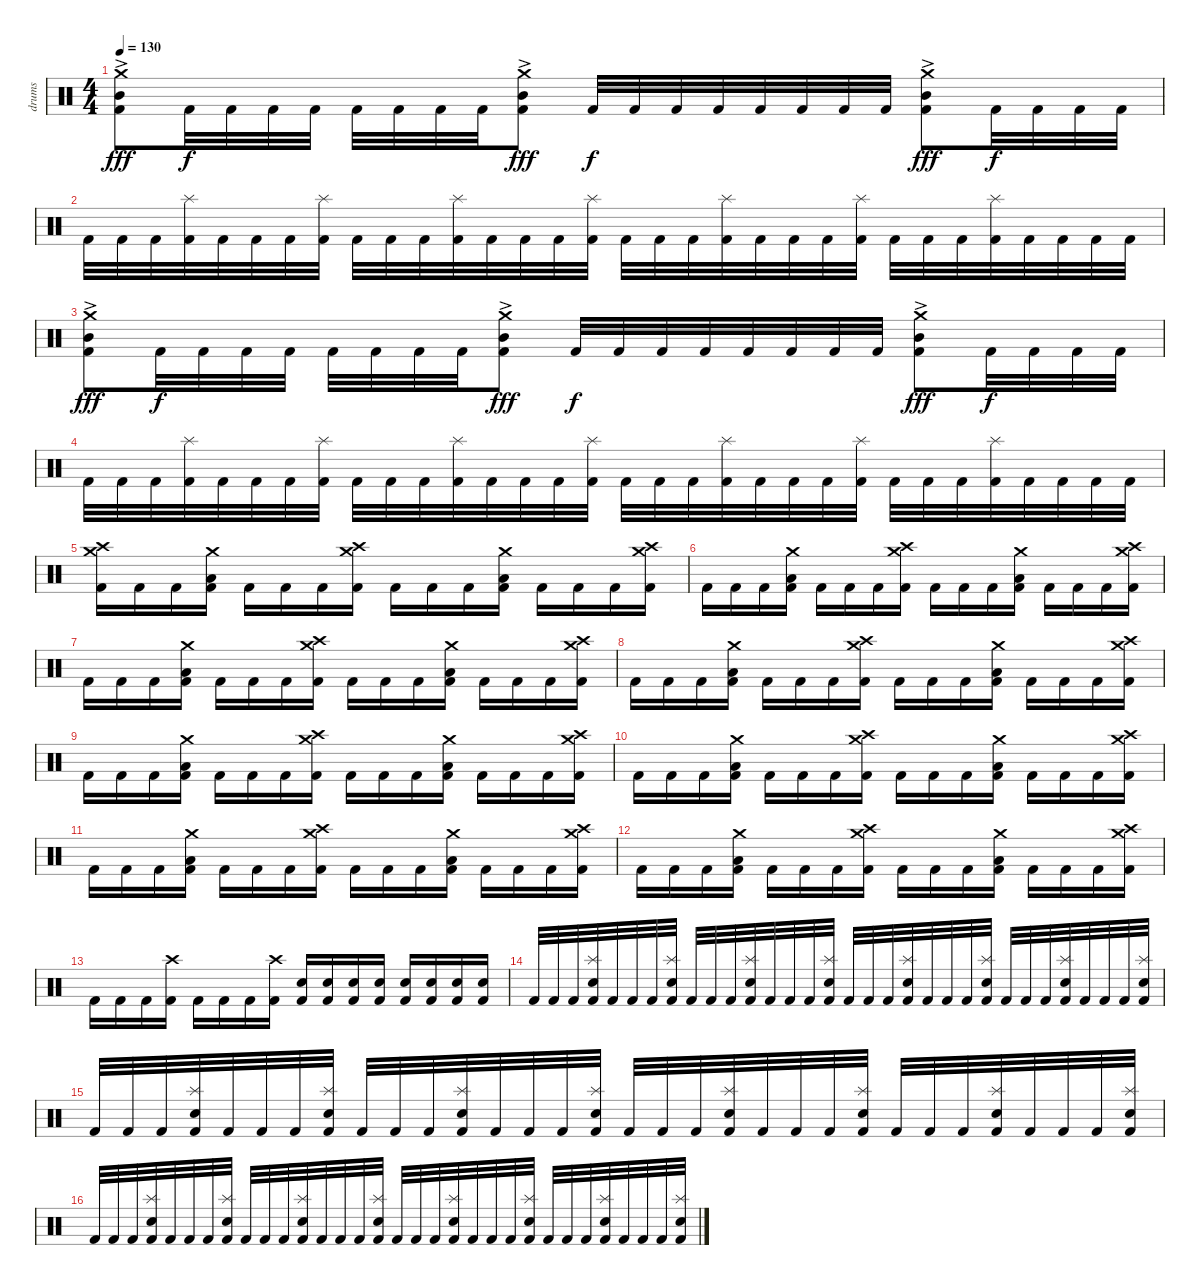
\track ("drums" "drums") {instrument percussion}
\staff {score}
\articulation defaults
\ts (4 4)
\tempo 130
\clef neutral
\ks c
("Crash medium (hit)" "Mid Tom (hit)" "Kick (hit) 2"{ac}).8{dy fff} "Kick (hit) 2".32{dy f} "Kick (hit) 2".32 "Kick (hit) 2".32 "Kick (hit) 2".32 "Kick (hit) 2".32 "Kick (hit) 2".32 "Kick (hit) 2".32 "Kick (hit) 2".32 ("Crash medium (hit)" "Mid Tom (hit)" "Kick (hit) 2"{ac}).8{dy fff} "Kick (hit) 2".32{dy f} "Kick (hit) 2".32 "Kick (hit) 2".32 "Kick (hit) 2".32 "Kick (hit) 2".32 "Kick (hit) 2".32 "Kick (hit) 2".32 "Kick (hit) 2".32 ("Crash medium (hit)" "Mid Tom (hit)" "Kick (hit) 2"{ac}).8{dy fff} "Kick (hit) 2".32{dy f} "Kick (hit) 2".32 "Kick (hit) 2".32 "Kick (hit) 2".32 |
"Kick (hit) 2".32 "Kick (hit) 2".32 "Kick (hit) 2".32 ("Splash (hit)" "Kick (hit) 2").32 "Kick (hit) 2".32 "Kick (hit) 2".32 "Kick (hit) 2".32 ("Splash (hit)" "Kick (hit) 2").32 "Kick (hit) 2".32 "Kick (hit) 2".32 "Kick (hit) 2".32 ("Splash (hit)" "Kick (hit) 2").32 "Kick (hit) 2".32 "Kick (hit) 2".32 "Kick (hit) 2".32 ("Splash (hit)" "Kick (hit) 2").32 "Kick (hit) 2".32 "Kick (hit) 2".32 "Kick (hit) 2".32 ("Splash (hit)" "Kick (hit) 2").32 "Kick (hit) 2".32 "Kick (hit) 2".32 "Kick (hit) 2".32 ("Splash (hit)" "Kick (hit) 2").32 "Kick (hit) 2".32 "Kick (hit) 2".32 "Kick (hit) 2".32 ("Splash (hit)" "Kick (hit) 2").32 "Kick (hit) 2".32 "Kick (hit) 2".32 "Kick (hit) 2".32 "Kick (hit) 2".32 |
("Crash medium (hit)" "Mid Tom (hit)" "Kick (hit) 2"{ac}).8{dy fff} "Kick (hit) 2".32{dy f} "Kick (hit) 2".32 "Kick (hit) 2".32 "Kick (hit) 2".32 "Kick (hit) 2".32 "Kick (hit) 2".32 "Kick (hit) 2".32 "Kick (hit) 2".32 ("Crash medium (hit)" "Mid Tom (hit)" "Kick (hit) 2"{ac}).8{dy fff} "Kick (hit) 2".32{dy f} "Kick (hit) 2".32 "Kick (hit) 2".32 "Kick (hit) 2".32 "Kick (hit) 2".32 "Kick (hit) 2".32 "Kick (hit) 2".32 "Kick (hit) 2".32 ("Crash medium (hit)" "Mid Tom (hit)" "Kick (hit) 2"{ac}).8{dy fff} "Kick (hit) 2".32{dy f} "Kick (hit) 2".32 "Kick (hit) 2".32 "Kick (hit) 2".32 |
"Kick (hit) 2".32 "Kick (hit) 2".32 "Kick (hit) 2".32 ("Splash (hit)" "Kick (hit) 2").32 "Kick (hit) 2".32 "Kick (hit) 2".32 "Kick (hit) 2".32 ("Splash (hit)" "Kick (hit) 2").32 "Kick (hit) 2".32 "Kick (hit) 2".32 "Kick (hit) 2".32 ("Splash (hit)" "Kick (hit) 2").32 "Kick (hit) 2".32 "Kick (hit) 2".32 "Kick (hit) 2".32 ("Splash (hit)" "Kick (hit) 2").32 "Kick (hit) 2".32 "Kick (hit) 2".32 "Kick (hit) 2".32 ("Splash (hit)" "Kick (hit) 2").32 "Kick (hit) 2".32 "Kick (hit) 2".32 "Kick (hit) 2".32 ("Splash (hit)" "Kick (hit) 2").32 "Kick (hit) 2".32 "Kick (hit) 2".32 "Kick (hit) 2".32 ("Splash (hit)" "Kick (hit) 2").32 "Kick (hit) 2".32 "Kick (hit) 2".32 "Kick (hit) 2".32 "Kick (hit) 2".32 |
("Crash high (hit)" "Crash medium (hit)" "Kick (hit) 2").16 "Kick (hit) 2".16 "Kick (hit) 2".16 ("Low Tom (hit)" "Crash medium (hit)" "Kick (hit) 2").16 "Kick (hit) 2".16 "Kick (hit) 2".16 "Kick (hit) 2".16 ("Crash high (hit)" "Crash medium (hit)" "Kick (hit) 2").16 "Kick (hit) 2".16 "Kick (hit) 2".16 "Kick (hit) 2".16 ("Low Tom (hit)" "Crash medium (hit)" "Kick (hit) 2").16 "Kick (hit) 2".16 "Kick (hit) 2".16 "Kick (hit) 2".16 ("Crash high (hit)" "Crash medium (hit)" "Kick (hit) 2").16 |
"Kick (hit) 2".16 "Kick (hit) 2".16 "Kick (hit) 2".16 ("Low Tom (hit)" "Crash medium (hit)" "Kick (hit) 2").16 "Kick (hit) 2".16 "Kick (hit) 2".16 "Kick (hit) 2".16 ("Crash high (hit)" "Crash medium (hit)" "Kick (hit) 2").16 "Kick (hit) 2".16 "Kick (hit) 2".16 "Kick (hit) 2".16 ("Low Tom (hit)" "Crash medium (hit)" "Kick (hit) 2").16 "Kick (hit) 2".16 "Kick (hit) 2".16 "Kick (hit) 2".16 ("Crash high (hit)" "Crash medium (hit)" "Kick (hit) 2").16 |
"Kick (hit) 2".16 "Kick (hit) 2".16 "Kick (hit) 2".16 ("Low Tom (hit)" "Crash medium (hit)" "Kick (hit) 2").16 "Kick (hit) 2".16 "Kick (hit) 2".16 "Kick (hit) 2".16 ("Crash high (hit)" "Crash medium (hit)" "Kick (hit) 2").16 "Kick (hit) 2".16 "Kick (hit) 2".16 "Kick (hit) 2".16 ("Low Tom (hit)" "Crash medium (hit)" "Kick (hit) 2").16 "Kick (hit) 2".16 "Kick (hit) 2".16 "Kick (hit) 2".16 ("Crash high (hit)" "Crash medium (hit)" "Kick (hit) 2").16 |
"Kick (hit) 2".16 "Kick (hit) 2".16 "Kick (hit) 2".16 ("Low Tom (hit)" "Crash medium (hit)" "Kick (hit) 2").16 "Kick (hit) 2".16 "Kick (hit) 2".16 "Kick (hit) 2".16 ("Crash high (hit)" "Crash medium (hit)" "Kick (hit) 2").16 "Kick (hit) 2".16 "Kick (hit) 2".16 "Kick (hit) 2".16 ("Low Tom (hit)" "Crash medium (hit)" "Kick (hit) 2").16 "Kick (hit) 2".16 "Kick (hit) 2".16 "Kick (hit) 2".16 ("Crash high (hit)" "Crash medium (hit)" "Kick (hit) 2").16 |
"Kick (hit) 2".16 "Kick (hit) 2".16 "Kick (hit) 2".16 ("Low Tom (hit)" "Crash medium (hit)" "Kick (hit) 2").16 "Kick (hit) 2".16 "Kick (hit) 2".16 "Kick (hit) 2".16 ("Crash high (hit)" "Crash medium (hit)" "Kick (hit) 2").16 "Kick (hit) 2".16 "Kick (hit) 2".16 "Kick (hit) 2".16 ("Low Tom (hit)" "Crash medium (hit)" "Kick (hit) 2").16 "Kick (hit) 2".16 "Kick (hit) 2".16 "Kick (hit) 2".16 ("Crash high (hit)" "Crash medium (hit)" "Kick (hit) 2").16 |
"Kick (hit) 2".16 "Kick (hit) 2".16 "Kick (hit) 2".16 ("Low Tom (hit)" "Crash medium (hit)" "Kick (hit) 2").16 "Kick (hit) 2".16 "Kick (hit) 2".16 "Kick (hit) 2".16 ("Crash high (hit)" "Crash medium (hit)" "Kick (hit) 2").16 "Kick (hit) 2".16 "Kick (hit) 2".16 "Kick (hit) 2".16 ("Low Tom (hit)" "Crash medium (hit)" "Kick (hit) 2").16 "Kick (hit) 2".16 "Kick (hit) 2".16 "Kick (hit) 2".16 ("Crash high (hit)" "Crash medium (hit)" "Kick (hit) 2").16 |
"Kick (hit) 2".16 "Kick (hit) 2".16 "Kick (hit) 2".16 ("Low Tom (hit)" "Crash medium (hit)" "Kick (hit) 2").16 "Kick (hit) 2".16 "Kick (hit) 2".16 "Kick (hit) 2".16 ("Crash high (hit)" "Crash medium (hit)" "Kick (hit) 2").16 "Kick (hit) 2".16 "Kick (hit) 2".16 "Kick (hit) 2".16 ("Low Tom (hit)" "Crash medium (hit)" "Kick (hit) 2").16 "Kick (hit) 2".16 "Kick (hit) 2".16 "Kick (hit) 2".16 ("Crash high (hit)" "Crash medium (hit)" "Kick (hit) 2").16 |
"Kick (hit) 2".16 "Kick (hit) 2".16 "Kick (hit) 2".16 ("Low Tom (hit)" "Crash medium (hit)" "Kick (hit) 2").16 "Kick (hit) 2".16 "Kick (hit) 2".16 "Kick (hit) 2".16 ("Crash high (hit)" "Crash medium (hit)" "Kick (hit) 2").16 "Kick (hit) 2".16 "Kick (hit) 2".16 "Kick (hit) 2".16 ("Low Tom (hit)" "Crash medium (hit)" "Kick (hit) 2").16 "Kick (hit) 2".16 "Kick (hit) 2".16 "Kick (hit) 2".16 ("Crash high (hit)" "Crash medium (hit)" "Kick (hit) 2").16 |
"Kick (hit) 2".16 "Kick (hit) 2".16 "Kick (hit) 2".16 ("Crash high (hit)" "Kick (hit) 2").16 "Kick (hit) 2".16 "Kick (hit) 2".16 "Kick (hit) 2".16 ("Crash high (hit)" "Kick (hit) 2").16 ("Electric Snare (hit)" "Kick (hit) 2").16 ("Electric Snare (hit)" "Kick (hit) 2").16 ("Electric Snare (hit)" "Kick (hit) 2").16 ("Electric Snare (hit)" "Kick (hit) 2").16 ("Electric Snare (hit)" "Kick (hit) 2").16 ("Electric Snare (hit)" "Kick (hit) 2").16 ("Electric Snare (hit)" "Kick (hit) 2").16 ("Electric Snare (hit)" "Kick (hit) 2").16 |
"Kick (hit) 2".32 "Kick (hit) 2".32 "Kick (hit) 2".32 ("Splash (hit)" "Electric Snare (hit)" "Kick (hit) 2").32 "Kick (hit) 2".32 "Kick (hit) 2".32 "Kick (hit) 2".32 ("Splash (hit)" "Electric Snare (hit)" "Kick (hit) 2").32 "Kick (hit) 2".32 "Kick (hit) 2".32 "Kick (hit) 2".32 ("Splash (hit)" "Electric Snare (hit)" "Kick (hit) 2").32 "Kick (hit) 2".32 "Kick (hit) 2".32 "Kick (hit) 2".32 ("Splash (hit)" "Electric Snare (hit)" "Kick (hit) 2").32 "Kick (hit) 2".32 "Kick (hit) 2".32 "Kick (hit) 2".32 ("Splash (hit)" "Electric Snare (hit)" "Kick (hit) 2").32 "Kick (hit) 2".32 "Kick (hit) 2".32 "Kick (hit) 2".32 ("Splash (hit)" "Electric Snare (hit)" "Kick (hit) 2").32 "Kick (hit) 2".32 "Kick (hit) 2".32 "Kick (hit) 2".32 ("Splash (hit)" "Electric Snare (hit)" "Kick (hit) 2").32 "Kick (hit) 2".32 "Kick (hit) 2".32 "Kick (hit) 2".32 ("Splash (hit)" "Electric Snare (hit)" "Kick (hit) 2").32 |
"Kick (hit) 2".32 "Kick (hit) 2".32 "Kick (hit) 2".32 ("Splash (hit)" "Electric Snare (hit)" "Kick (hit) 2").32 "Kick (hit) 2".32 "Kick (hit) 2".32 "Kick (hit) 2".32 ("Splash (hit)" "Electric Snare (hit)" "Kick (hit) 2").32 "Kick (hit) 2".32 "Kick (hit) 2".32 "Kick (hit) 2".32 ("Splash (hit)" "Electric Snare (hit)" "Kick (hit) 2").32 "Kick (hit) 2".32 "Kick (hit) 2".32 "Kick (hit) 2".32 ("Splash (hit)" "Electric Snare (hit)" "Kick (hit) 2").32 "Kick (hit) 2".32 "Kick (hit) 2".32 "Kick (hit) 2".32 ("Splash (hit)" "Electric Snare (hit)" "Kick (hit) 2").32 "Kick (hit) 2".32 "Kick (hit) 2".32 "Kick (hit) 2".32 ("Splash (hit)" "Electric Snare (hit)" "Kick (hit) 2").32 "Kick (hit) 2".32 "Kick (hit) 2".32 "Kick (hit) 2".32 ("Splash (hit)" "Electric Snare (hit)" "Kick (hit) 2").32 "Kick (hit) 2".32 "Kick (hit) 2".32 "Kick (hit) 2".32 ("Splash (hit)" "Electric Snare (hit)" "Kick (hit) 2").32 |
"Kick (hit) 2".32 "Kick (hit) 2".32 "Kick (hit) 2".32 ("Splash (hit)" "Electric Snare (hit)" "Kick (hit) 2").32 "Kick (hit) 2".32 "Kick (hit) 2".32 "Kick (hit) 2".32 ("Splash (hit)" "Electric Snare (hit)" "Kick (hit) 2").32 "Kick (hit) 2".32 "Kick (hit) 2".32 "Kick (hit) 2".32 ("Splash (hit)" "Electric Snare (hit)" "Kick (hit) 2").32 "Kick (hit) 2".32 "Kick (hit) 2".32 "Kick (hit) 2".32 ("Splash (hit)" "Electric Snare (hit)" "Kick (hit) 2").32 "Kick (hit) 2".32 "Kick (hit) 2".32 "Kick (hit) 2".32 ("Splash (hit)" "Electric Snare (hit)" "Kick (hit) 2").32 "Kick (hit) 2".32 "Kick (hit) 2".32 "Kick (hit) 2".32 ("Splash (hit)" "Electric Snare (hit)" "Kick (hit) 2").32 "Kick (hit) 2".32 "Kick (hit) 2".32 "Kick (hit) 2".32 ("Splash (hit)" "Electric Snare (hit)" "Kick (hit) 2").32 "Kick (hit) 2".32 "Kick (hit) 2".32 "Kick (hit) 2".32 ("Splash (hit)" "Electric Snare (hit)" "Kick (hit) 2").32
